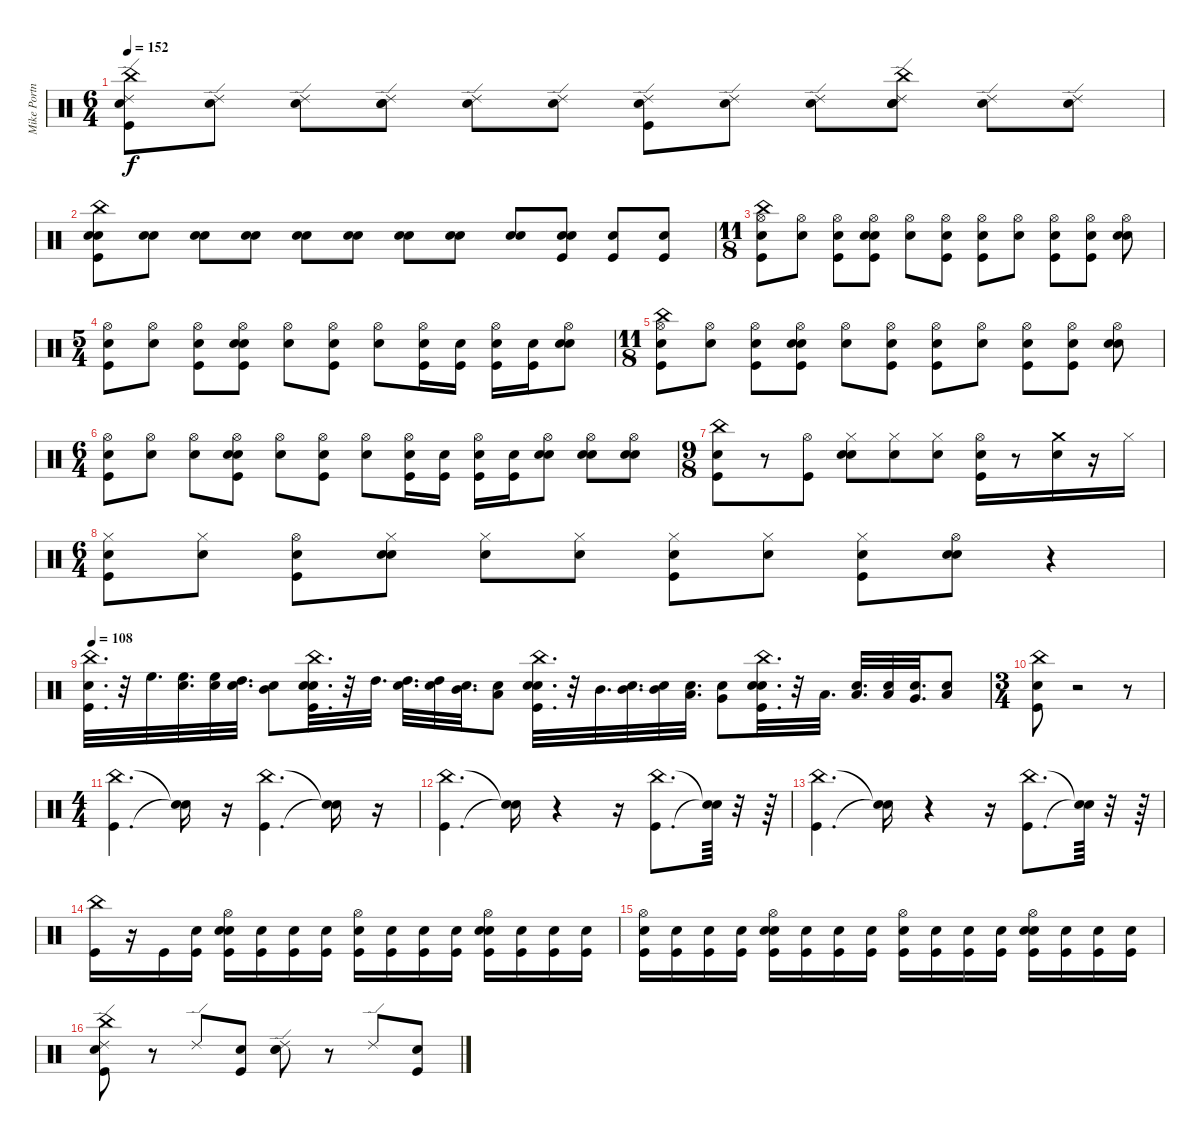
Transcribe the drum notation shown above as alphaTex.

\track ("Mike Portnoy" "Mike Portn") {instrument percussion}
\staff {score}
\articulation defaults
\ts (6 4)
\tempo 152
\clef neutral
\ks c
("Snare (hit)" "Kick (hit)" "China (hit)" "Ride (edge) 2").8{dy f} ("Snare (hit)" "Ride (edge) 2").8 ("Snare (hit)" "Ride (edge) 2").8 ("Snare (hit)" "Snare (hit) 2" "Ride (edge) 2").8 ("Snare (hit)" "Ride (edge) 2").8 ("Snare (hit)" "Ride (edge) 2").8 ("Snare (hit)" "Kick (hit)" "Ride (edge) 2").8 ("Snare (hit)" "Ride (edge) 2").8 ("Snare (hit)" "Ride (edge) 2").8 ("Snare (hit)" "Snare (hit) 2" "China (hit)" "Ride (edge) 2").8 ("Snare (hit)" "Ride (edge) 2").8 ("Snare (hit)" "Ride (edge) 2").8 |
("Snare (hit)" "Kick (hit)" "Snare (hit) 2" "China (hit)").8 ("Snare (hit)" "Snare (hit) 2").8 ("Snare (hit)" "Snare (hit) 2").8 ("Snare (hit)" "Snare (hit) 2").8 ("Snare (hit)" "Snare (hit) 2").8 ("Snare (hit)" "Snare (hit) 2").8 ("Snare (hit)" "Snare (hit) 2").8 ("Snare (hit)" "Snare (hit) 2").8 ("Snare (hit)" "Snare (hit) 2").8 ("Snare (hit)" "Kick (hit)" "Snare (hit) 2").8 ("Snare (hit)" "Kick (hit)").8 ("Snare (hit)" "Kick (hit)").8 |
\ts (11 8)
("Snare (hit)" "Kick (hit)" "Hi-Hat (open)" "China (hit)").8 ("Snare (hit)" "Hi-Hat (open)").8 ("Snare (hit)" "Kick (hit)" "Hi-Hat (open)").8 ("Snare (hit)" "Kick (hit)" "Snare (hit) 2" "Hi-Hat (open)").8 ("Snare (hit)" "Hi-Hat (open)").8 ("Snare (hit)" "Kick (hit)" "Hi-Hat (open)").8 ("Snare (hit)" "Kick (hit)" "Hi-Hat (open)").8 ("Snare (hit)" "Hi-Hat (open)").8 ("Snare (hit)" "Kick (hit)" "Hi-Hat (open)").8 ("Snare (hit)" "Kick (hit)" "Hi-Hat (open)").8 ("Snare (hit)" "Snare (hit) 2" "Hi-Hat (open)").8 |
\ts (5 4)
("Snare (hit)" "Kick (hit)" "Hi-Hat (open)").8 ("Snare (hit)" "Hi-Hat (open)").8 ("Snare (hit)" "Kick (hit)" "Hi-Hat (open)").8 ("Snare (hit)" "Kick (hit)" "Snare (hit) 2" "Hi-Hat (open)").8 ("Snare (hit)" "Hi-Hat (open)").8 ("Snare (hit)" "Kick (hit)" "Hi-Hat (open)").8 ("Snare (hit)" "Hi-Hat (open)").8 ("Snare (hit)" "Kick (hit)" "Hi-Hat (open)").16 ("Snare (hit)" "Kick (hit)").16 ("Snare (hit)" "Kick (hit)" "Hi-Hat (open)").16 ("Snare (hit)" "Kick (hit)").16 ("Snare (hit)" "Snare (hit) 2" "Hi-Hat (open)").8 |
\ts (11 8)
("Snare (hit)" "Kick (hit)" "Hi-Hat (open)" "China (hit)").8 ("Snare (hit)" "Hi-Hat (open)").8 ("Snare (hit)" "Kick (hit)" "Hi-Hat (open)").8 ("Snare (hit)" "Kick (hit)" "Snare (hit) 2" "Hi-Hat (open)").8 ("Snare (hit)" "Hi-Hat (open)").8 ("Snare (hit)" "Kick (hit)" "Hi-Hat (open)").8 ("Snare (hit)" "Kick (hit)" "Hi-Hat (open)").8 ("Snare (hit)" "Hi-Hat (open)").8 ("Snare (hit)" "Kick (hit)" "Hi-Hat (open)").8 ("Snare (hit)" "Kick (hit)" "Hi-Hat (open)").8 ("Snare (hit)" "Snare (hit) 2" "Hi-Hat (open)").8 |
\ts (6 4)
("Snare (hit)" "Kick (hit)" "Hi-Hat (open)").8 ("Snare (hit)" "Hi-Hat (open)").8 ("Snare (hit)" "Hi-Hat (open)").8 ("Snare (hit)" "Kick (hit)" "Snare (hit) 2" "Hi-Hat (open)").8 ("Snare (hit)" "Hi-Hat (open)").8 ("Snare (hit)" "Kick (hit)" "Hi-Hat (open)").8 ("Snare (hit)" "Hi-Hat (open)").8 ("Snare (hit)" "Kick (hit)" "Hi-Hat (open)").16 ("Snare (hit)" "Kick (hit)").16 ("Snare (hit)" "Kick (hit)" "Hi-Hat (open)").16 ("Snare (hit)" "Kick (hit)").16 ("Snare (hit)" "Snare (hit) 2" "Hi-Hat (open)").8 ("Snare (hit)" "Snare (hit) 2" "Hi-Hat (open)").8 ("Snare (hit)" "Snare (hit) 2" "Hi-Hat (open)").8 |
\ts (9 8)
("Snare (hit)" "Kick (hit)" "China (hit)").8 r.8 ("Kick (hit)" "Hi-Hat (open)").8 ("Snare (hit)" "Snare (hit) 2" "Hi-Hat (closed)").8 ("Snare (hit)" "Hi-Hat (closed)").8 ("Snare (hit)" "Hi-Hat (closed)").8 ("Snare (hit)" "Kick (hit)" "Hi-Hat (open)").16 r.8 ("Snare (hit) 2" "Crash medium (hit)").16 r.16 "Hi-Hat (closed)".16 |
\ts (6 4)
("Snare (hit)" "Kick (hit)" "Hi-Hat (closed)").8 ("Snare (hit)" "Hi-Hat (closed)").8 ("Snare (hit)" "Kick (hit)" "Hi-Hat (open)").8 ("Snare (hit)" "Snare (hit) 2" "Hi-Hat (closed)").8 ("Snare (hit)" "Hi-Hat (closed)").8 ("Snare (hit)" "Hi-Hat (closed)").8 ("Snare (hit)" "Kick (hit)" "Hi-Hat (closed)").8 ("Snare (hit)" "Hi-Hat (closed)").8 ("Snare (hit)" "Kick (hit)" "Hi-Hat (closed)").8 ("Snare (hit)" "Snare (hit) 2" "Hi-Hat (open)").8 r.4 |
\tempo 108
("Kick (hit)" "Snare (hit) 2" "China (hit)").32{d} r.32 "High Floor Tom (hit)".32{d} ("Snare (hit)" "High Floor Tom (hit)").32{d} ("Snare (hit)" "High Floor Tom (hit)").32 ("Snare (hit)" "High Tom (hit)").32{d} ("Snare (hit)" "Mid Tom (hit)").8 ("Snare (hit)" "Kick (hit)" "Snare (hit) 2" "China (hit)").32{d} r.32 "High Tom (hit)".32{d} ("Snare (hit)" "High Tom (hit)").32{d} ("Snare (hit)" "High Tom (hit)").32 ("Snare (hit)" "Mid Tom (hit)").32{d} ("Snare (hit)" "Low Tom (hit)").8 ("Snare (hit)" "Kick (hit)" "Snare (hit) 2" "China (hit)").32{d} r.32 "Mid Tom (hit)".32{d} ("Snare (hit)" "Mid Tom (hit)").32{d} ("Snare (hit)" "Mid Tom (hit)").32 ("Snare (hit)" "Low Tom (hit)").32{d} ("Snare (hit)" "Very Low Tom (hit)").8 ("Snare (hit)" "Kick (hit)" "Snare (hit) 2" "China (hit)").32{d} r.32 "Low Tom (hit)".32{d} ("Snare (hit)" "Low Tom (hit)").32{d} ("Snare (hit)" "Low Tom (hit)").32 ("Snare (hit)" "Very Low Tom (hit)").32{d} ("Snare (hit)" "Low Floor Tom (hit)").8 |
\ts (3 4)
("Snare (hit)" "Kick (hit)" "China (hit)").8 r.2 r.8 |
\ts (4 4)
("Kick (hit)" "China (hit)").4{d} ("Snare (hit)"{t} "Snare (hit)"{t}).16 r.16 ("Kick (hit)" "China (hit)").4{d} ("Snare (hit)"{t} "Snare (hit)"{t}).16 r.16 |
("Kick (hit)" "China (hit)").4{d} ("Snare (hit)"{t} "Snare (hit)"{t}).16 r.4 r.16 ("Kick (hit)" "China (hit)").8{d} ("Snare (hit)"{t} "Snare (hit)"{t}).64 r.32 r.64 |
("Kick (hit)" "China (hit)").4{d} ("Snare (hit)"{t} "Snare (hit)"{t}).16 r.4 r.16 ("Kick (hit)" "China (hit)").8{d} ("Snare (hit)"{t} "Snare (hit)"{t}).64 r.32 r.64 |
("Kick (hit)" "China (hit)").16 r.16 "Kick (hit)".16 ("Snare (hit)" "Kick (hit)").16 ("Snare (hit)" "Kick (hit)" "Snare (hit) 2" "Hi-Hat (open)").16 ("Snare (hit)" "Kick (hit)").16 ("Snare (hit)" "Kick (hit)").16 ("Snare (hit)" "Kick (hit)").16 ("Snare (hit)" "Kick (hit)" "Hi-Hat (open)").16 ("Snare (hit)" "Kick (hit)").16 ("Snare (hit)" "Kick (hit)").16 ("Snare (hit)" "Kick (hit)").16 ("Snare (hit)" "Kick (hit)" "Snare (hit) 2" "Hi-Hat (open)").16 ("Snare (hit)" "Kick (hit)").16 ("Snare (hit)" "Kick (hit)").16 ("Snare (hit)" "Kick (hit)").16 |
("Snare (hit)" "Kick (hit)" "Hi-Hat (open)").16 ("Snare (hit)" "Kick (hit)").16 ("Snare (hit)" "Kick (hit)").16 ("Snare (hit)" "Kick (hit)").16 ("Snare (hit)" "Kick (hit)" "Snare (hit) 2" "Hi-Hat (open)").16 ("Snare (hit)" "Kick (hit)").16 ("Snare (hit)" "Kick (hit)").16 ("Snare (hit)" "Kick (hit)").16 ("Snare (hit)" "Kick (hit)" "Hi-Hat (open)").16 ("Snare (hit)" "Kick (hit)").16 ("Snare (hit)" "Kick (hit)").16 ("Snare (hit)" "Kick (hit)").16 ("Snare (hit)" "Kick (hit)" "Snare (hit) 2" "Hi-Hat (open)").16 ("Snare (hit)" "Kick (hit)").16 ("Snare (hit)" "Kick (hit)").16 ("Snare (hit)" "Kick (hit)").16 |
("Snare (hit)" "Kick (hit)" "China (hit)" "Ride (edge) 2").8 r.8 "Ride (edge) 2".8 ("Snare (hit)" "Kick (hit)").8 ("Snare (hit)" "Snare (hit) 2" "Ride (edge) 2").8 r.8 "Ride (edge) 2".8 ("Snare (hit)" "Kick (hit)").8
